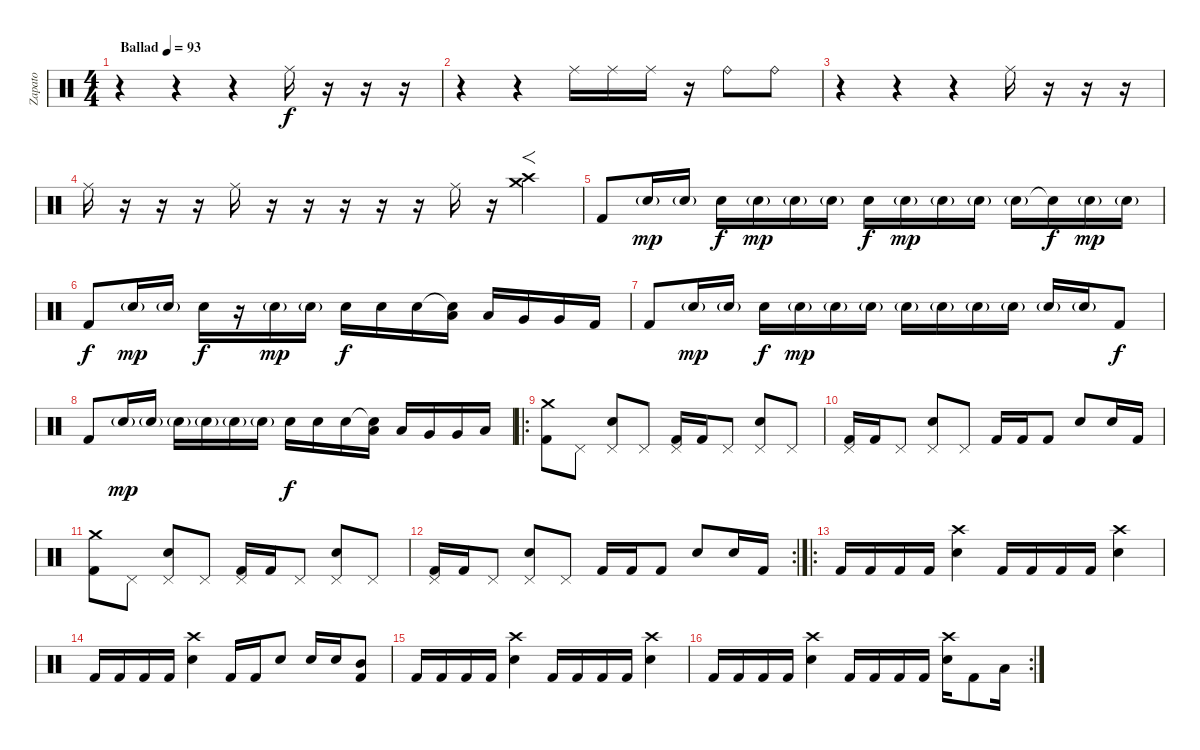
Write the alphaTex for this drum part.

\track ("Zapato" "Zapato") {instrument percussion}
\staff {score}
\articulation defaults
\ts (4 4)
\tempo (93 "Ballad")
\clef neutral
\ks c
r.4{dy f} r.4 r.4 "Ride (middle)".16 r.16 r.16 r.16 |
r.4 r.4 "Ride (middle)".16 "Ride (middle)".16 "Ride (middle)".16 r.16 "Ride (bell)".8 "Ride (bell)".8 |
r.4 r.4 r.4 "Ride (middle)".16 r.16 r.16 r.16 |
"Ride (middle)".16 r.16 r.16 r.16 "Ride (middle)".16 r.16 r.16 r.16 r.16 r.16 "Ride (middle)".16 r.16 ("Crash high (hit)" "Crash medium (hit)").4{f} |
"Kick (hit) 2".8 "Electric Snare (hit)"{g}.16{dy mp} "Electric Snare (hit)"{g}.16 "Electric Snare (hit)".16{dy f} "Electric Snare (hit)"{g}.16{dy mp} "Electric Snare (hit)"{g}.16 "Electric Snare (hit)"{g}.16 "Electric Snare (hit)".16{dy f} "Electric Snare (hit)"{g}.16{dy mp} "Electric Snare (hit)"{g}.16 "Electric Snare (hit)"{g}.16 "Electric Snare (hit)"{g}.16 "Electric Snare (hit)"{t}.16{dy f} "Electric Snare (hit)"{g}.16{dy mp} "Electric Snare (hit)"{g}.16 |
"Kick (hit) 2".8{dy f} "Electric Snare (hit)"{g}.16{dy mp} "Electric Snare (hit)"{g}.16 "Electric Snare (hit)".16{dy f} r.16 "Electric Snare (hit)"{g}.16{dy mp} "Electric Snare (hit)"{g}.16 "Electric Snare (hit)".16{dy f} "Electric Snare (hit)".16 "Electric Snare (hit)".16 ("Electric Snare (hit)"{t} "Low Floor Tom (hit)").16 "Low Floor Tom (hit)".16 "Very Low Tom (hit)".16 "Very Low Tom (hit)".16 "Kick (hit) 2".16 |
"Kick (hit) 2".8 "Electric Snare (hit)"{g}.16{dy mp} "Electric Snare (hit)"{g}.16 "Electric Snare (hit)".16{dy f} "Electric Snare (hit)"{g}.16{dy mp} "Electric Snare (hit)"{g}.16 "Electric Snare (hit)"{g}.16 "Electric Snare (hit)"{g}.16 "Electric Snare (hit)"{g}.16 "Electric Snare (hit)"{g}.16 "Electric Snare (hit)"{g}.16 "Electric Snare (hit)"{g}.16 "Electric Snare (hit)"{g}.16 "Kick (hit) 2".8{dy f} |
"Kick (hit) 2".8 "Electric Snare (hit)"{g}.16{dy mp} "Electric Snare (hit)"{g}.16 "Electric Snare (hit)"{g}.16 "Electric Snare (hit)"{g}.16 "Electric Snare (hit)"{g}.16 "Electric Snare (hit)"{g}.16 "Electric Snare (hit)".16{dy f} "Electric Snare (hit)".16 "Electric Snare (hit)".16 ("Electric Snare (hit)"{t} "Low Floor Tom (hit)").16 "Low Floor Tom (hit)".16 "Very Low Tom (hit)".16 "Very Low Tom (hit)".16 "Low Tom (hit)".16 |
\ro
("Kick (hit) 2" "Crash medium (hit)").8 "Pedal Hi-Hat (hit)".8 ("Electric Snare (hit)" "Pedal Hi-Hat (hit)").8 "Pedal Hi-Hat (hit)".8 ("Kick (hit) 2" "Pedal Hi-Hat (hit)").16 "Kick (hit) 2".16 "Pedal Hi-Hat (hit)".8 ("Electric Snare (hit)" "Pedal Hi-Hat (hit)").8 "Pedal Hi-Hat (hit)".8 |
("Kick (hit) 2" "Pedal Hi-Hat (hit)").16 "Kick (hit) 2".16 "Pedal Hi-Hat (hit)".8 ("Electric Snare (hit)" "Pedal Hi-Hat (hit)").8 "Pedal Hi-Hat (hit)".8 "Kick (hit) 2".16 "Kick (hit) 2".16 "Kick (hit) 2".8 "Electric Snare (hit)".8 "Electric Snare (hit)".16 "Kick (hit) 2".16 |
("Kick (hit) 2" "Crash medium (hit)").8 "Pedal Hi-Hat (hit)".8 ("Electric Snare (hit)" "Pedal Hi-Hat (hit)").8 "Pedal Hi-Hat (hit)".8 ("Kick (hit) 2" "Pedal Hi-Hat (hit)").16 "Kick (hit) 2".16 "Pedal Hi-Hat (hit)".8 ("Electric Snare (hit)" "Pedal Hi-Hat (hit)").8 "Pedal Hi-Hat (hit)".8 |
\rc 2
("Kick (hit) 2" "Pedal Hi-Hat (hit)").16 "Kick (hit) 2".16 "Pedal Hi-Hat (hit)".8 ("Electric Snare (hit)" "Pedal Hi-Hat (hit)").8 "Pedal Hi-Hat (hit)".8 "Kick (hit) 2".16 "Kick (hit) 2".16 "Kick (hit) 2".8 "Electric Snare (hit)".8 "Electric Snare (hit)".16 "Kick (hit) 2".16 |
\ro "Kick (hit) 2".16 "Kick (hit) 2".16 "Kick (hit) 2".16 "Kick (hit) 2".16
("Electric Snare (hit)" "Crash high (hit)").4 "Kick (hit) 2".16 "Kick (hit) 2".16 "Kick (hit) 2".16 "Kick (hit) 2".16 ("Electric Snare (hit)" "Crash high (hit)").4 |
"Kick (hit) 2".16 "Kick (hit) 2".16 "Kick (hit) 2".16 "Kick (hit) 2".16 ("Electric Snare (hit)" "Crash high (hit)").4 "Kick (hit) 2".16 "Kick (hit) 2".16 "Electric Snare (hit)".8 "Electric Snare (hit)".16 "Electric Snare (hit)".16 ("Kick (hit) 2" "Mid Tom (hit)").8 |
"Kick (hit) 2".16 "Kick (hit) 2".16 "Kick (hit) 2".16 "Kick (hit) 2".16 ("Electric Snare (hit)" "Crash high (hit)").4 "Kick (hit) 2".16 "Kick (hit) 2".16 "Kick (hit) 2".16 "Kick (hit) 2".16 ("Electric Snare (hit)" "Crash high (hit)").4 |
\rc 2 "Kick (hit) 2".16 "Kick (hit) 2".16 "Kick (hit) 2".16 "Kick (hit) 2".16
("Electric Snare (hit)" "Crash high (hit)").4 "Kick (hit) 2".16 "Kick (hit) 2".16 "Kick (hit) 2".16 "Kick (hit) 2".16 ("Electric Snare (hit)" "Crash high (hit)").16 "Kick (hit) 2".8 "Low Floor Tom (hit)".16
